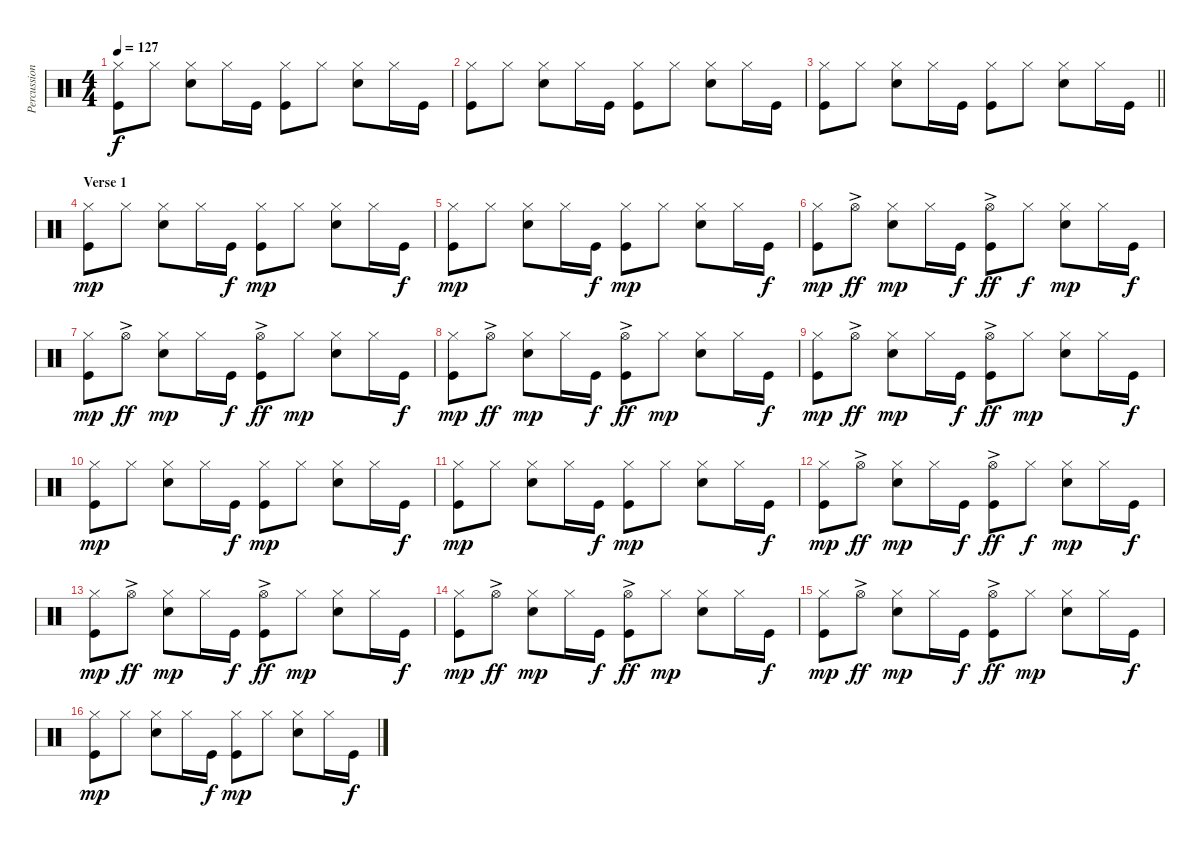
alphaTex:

\track ("Percussion" "Percussion") {instrument percussion}
\staff {score}
\articulation defaults
\ts (4 4)
\tempo 127
\clef neutral
\ks c
("Hi-Hat (closed)" "Kick (hit)").8{dy f} "Hi-Hat (closed)".8 ("Hi-Hat (closed)" "Snare (hit) 2").8 "Hi-Hat (closed)".16 "Kick (hit)".16 ("Hi-Hat (closed)" "Kick (hit)").8 "Hi-Hat (closed)".8 ("Hi-Hat (closed)" "Snare (hit) 2").8 "Hi-Hat (closed)".16 "Kick (hit)".16 |
("Hi-Hat (closed)" "Kick (hit)").8 "Hi-Hat (closed)".8 ("Hi-Hat (closed)" "Snare (hit) 2").8 "Hi-Hat (closed)".16 "Kick (hit)".16 ("Hi-Hat (closed)" "Kick (hit)").8 "Hi-Hat (closed)".8 ("Hi-Hat (closed)" "Snare (hit) 2").8 "Hi-Hat (closed)".16 "Kick (hit)".16 |
\barLineRight lightlight
("Hi-Hat (closed)" "Kick (hit)").8 "Hi-Hat (closed)".8 ("Hi-Hat (closed)" "Snare (hit) 2").8 "Hi-Hat (closed)".16 "Kick (hit)".16 ("Hi-Hat (closed)" "Kick (hit)").8 "Hi-Hat (closed)".8 ("Hi-Hat (closed)" "Snare (hit) 2").8 "Hi-Hat (closed)".16 "Kick (hit)".16 |
\section ("" "Verse 1")
("Hi-Hat (closed)" "Kick (hit)").8{dy mp} "Hi-Hat (closed)".8 ("Hi-Hat (closed)" "Snare (hit) 2").8 "Hi-Hat (closed)".16 "Kick (hit)".16{dy f} ("Hi-Hat (closed)" "Kick (hit)").8{dy mp} "Hi-Hat (closed)".8 ("Hi-Hat (closed)" "Snare (hit) 2").8 "Hi-Hat (closed)".16 "Kick (hit)".16{dy f} |
("Hi-Hat (closed)" "Kick (hit)").8{dy mp} "Hi-Hat (closed)".8 ("Hi-Hat (closed)" "Snare (hit) 2").8 "Hi-Hat (closed)".16 "Kick (hit)".16{dy f} ("Hi-Hat (closed)" "Kick (hit)").8{dy mp} "Hi-Hat (closed)".8 ("Hi-Hat (closed)" "Snare (hit) 2").8 "Hi-Hat (closed)".16 "Kick (hit)".16{dy f} |
("Hi-Hat (closed)" "Kick (hit)").8{dy mp} "Hi-Hat (open)"{ac}.8{dy ff} ("Hi-Hat (closed)" "Snare (hit) 2").8{dy mp} "Hi-Hat (closed)".16 "Kick (hit)".16{dy f} ("Hi-Hat (open)"{ac} "Kick (hit)").8{dy ff} "Hi-Hat (closed)".8{dy f} ("Hi-Hat (closed)" "Snare (hit) 2").8{dy mp} "Hi-Hat (closed)".16 "Kick (hit)".16{dy f} |
("Hi-Hat (closed)" "Kick (hit)").8{dy mp} "Hi-Hat (open)"{ac}.8{dy ff} ("Hi-Hat (closed)" "Snare (hit) 2").8{dy mp} "Hi-Hat (closed)".16 "Kick (hit)".16{dy f} ("Hi-Hat (open)"{ac} "Kick (hit)").8{dy ff} "Hi-Hat (closed)".8{dy mp} ("Hi-Hat (closed)" "Snare (hit) 2").8 "Hi-Hat (closed)".16 "Kick (hit)".16{dy f} |
("Hi-Hat (closed)" "Kick (hit)").8{dy mp} "Hi-Hat (open)"{ac}.8{dy ff} ("Hi-Hat (closed)" "Snare (hit) 2").8{dy mp} "Hi-Hat (closed)".16 "Kick (hit)".16{dy f} ("Hi-Hat (open)"{ac} "Kick (hit)").8{dy ff} "Hi-Hat (closed)".8{dy mp} ("Hi-Hat (closed)" "Snare (hit) 2").8 "Hi-Hat (closed)".16 "Kick (hit)".16{dy f} |
("Hi-Hat (closed)" "Kick (hit)").8{dy mp} "Hi-Hat (open)"{ac}.8{dy ff} ("Hi-Hat (closed)" "Snare (hit) 2").8{dy mp} "Hi-Hat (closed)".16 "Kick (hit)".16{dy f} ("Hi-Hat (open)"{ac} "Kick (hit)").8{dy ff} "Hi-Hat (closed)".8{dy mp} ("Hi-Hat (closed)" "Snare (hit) 2").8 "Hi-Hat (closed)".16 "Kick (hit)".16{dy f} |
("Hi-Hat (closed)" "Kick (hit)").8{dy mp} "Hi-Hat (closed)".8 ("Hi-Hat (closed)" "Snare (hit) 2").8 "Hi-Hat (closed)".16 "Kick (hit)".16{dy f} ("Hi-Hat (closed)" "Kick (hit)").8{dy mp} "Hi-Hat (closed)".8 ("Hi-Hat (closed)" "Snare (hit) 2").8 "Hi-Hat (closed)".16 "Kick (hit)".16{dy f} |
("Hi-Hat (closed)" "Kick (hit)").8{dy mp} "Hi-Hat (closed)".8 ("Hi-Hat (closed)" "Snare (hit) 2").8 "Hi-Hat (closed)".16 "Kick (hit)".16{dy f} ("Hi-Hat (closed)" "Kick (hit)").8{dy mp} "Hi-Hat (closed)".8 ("Hi-Hat (closed)" "Snare (hit) 2").8 "Hi-Hat (closed)".16 "Kick (hit)".16{dy f} |
("Hi-Hat (closed)" "Kick (hit)").8{dy mp} "Hi-Hat (open)"{ac}.8{dy ff} ("Hi-Hat (closed)" "Snare (hit) 2").8{dy mp} "Hi-Hat (closed)".16 "Kick (hit)".16{dy f} ("Hi-Hat (open)"{ac} "Kick (hit)").8{dy ff} "Hi-Hat (closed)".8{dy f} ("Hi-Hat (closed)" "Snare (hit) 2").8{dy mp} "Hi-Hat (closed)".16 "Kick (hit)".16{dy f} |
("Hi-Hat (closed)" "Kick (hit)").8{dy mp} "Hi-Hat (open)"{ac}.8{dy ff} ("Hi-Hat (closed)" "Snare (hit) 2").8{dy mp} "Hi-Hat (closed)".16 "Kick (hit)".16{dy f} ("Hi-Hat (open)"{ac} "Kick (hit)").8{dy ff} "Hi-Hat (closed)".8{dy mp} ("Hi-Hat (closed)" "Snare (hit) 2").8 "Hi-Hat (closed)".16 "Kick (hit)".16{dy f} |
("Hi-Hat (closed)" "Kick (hit)").8{dy mp} "Hi-Hat (open)"{ac}.8{dy ff} ("Hi-Hat (closed)" "Snare (hit) 2").8{dy mp} "Hi-Hat (closed)".16 "Kick (hit)".16{dy f} ("Hi-Hat (open)"{ac} "Kick (hit)").8{dy ff} "Hi-Hat (closed)".8{dy mp} ("Hi-Hat (closed)" "Snare (hit) 2").8 "Hi-Hat (closed)".16 "Kick (hit)".16{dy f} |
("Hi-Hat (closed)" "Kick (hit)").8{dy mp} "Hi-Hat (open)"{ac}.8{dy ff} ("Hi-Hat (closed)" "Snare (hit) 2").8{dy mp} "Hi-Hat (closed)".16 "Kick (hit)".16{dy f} ("Hi-Hat (open)"{ac} "Kick (hit)").8{dy ff} "Hi-Hat (closed)".8{dy mp} ("Hi-Hat (closed)" "Snare (hit) 2").8 "Hi-Hat (closed)".16 "Kick (hit)".16{dy f} |
("Hi-Hat (closed)" "Kick (hit)").8{dy mp} "Hi-Hat (closed)".8 ("Hi-Hat (closed)" "Snare (hit) 2").8 "Hi-Hat (closed)".16 "Kick (hit)".16{dy f} ("Hi-Hat (closed)" "Kick (hit)").8{dy mp} "Hi-Hat (closed)".8 ("Hi-Hat (closed)" "Snare (hit) 2").8 "Hi-Hat (closed)".16 "Kick (hit)".16{dy f}
